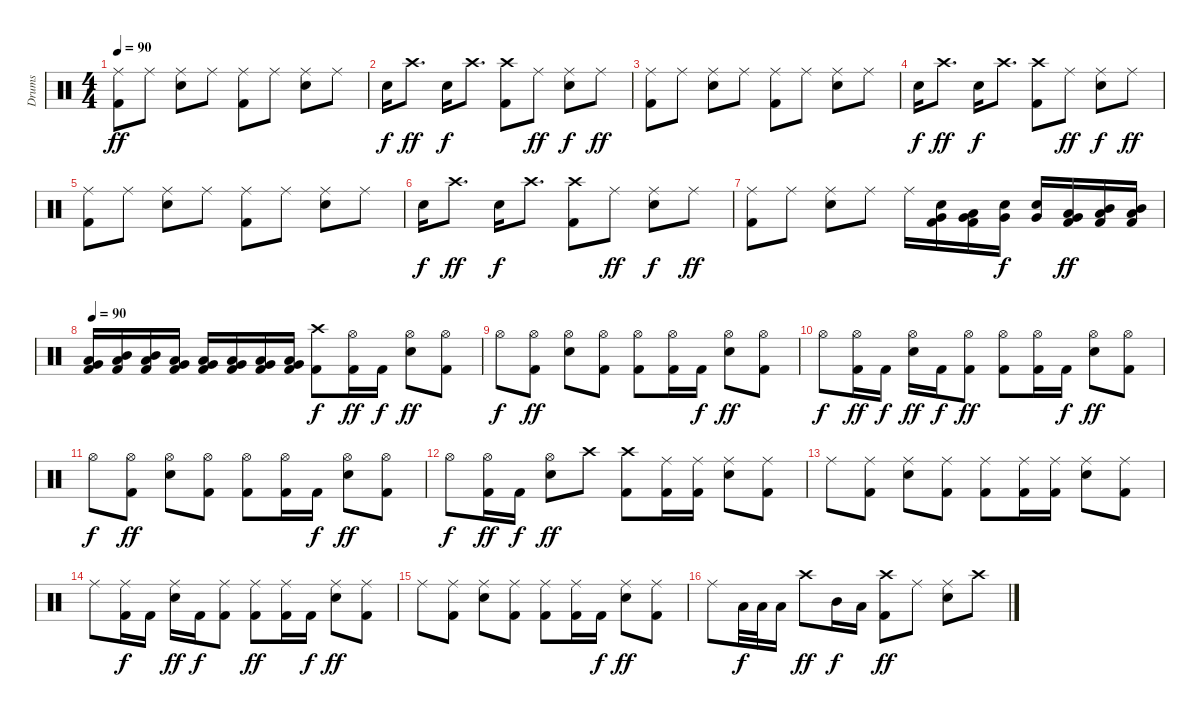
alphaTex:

\track ("Drums" "Drums") {instrument percussion}
\staff {score}
\articulation defaults
\ts (4 4)
\tempo 90
\clef neutral
\ks c
("Ride (middle)" "Kick (hit) 2").8{dy ff} "Ride (middle)".8 ("Ride (middle)" "Electric Snare (hit)").8 "Ride (middle)".8 ("Ride (middle)" "Kick (hit) 2").8 "Ride (middle)".8 ("Ride (middle)" "Electric Snare (hit)").8 "Ride (middle)".8 |
"Electric Snare (hit)".16{dy f} "Crash high (hit)".8{d dy ff} "Electric Snare (hit)".16{dy f} "Crash high (hit)".8{d} ("Crash high (hit)" "Kick (hit) 2").8 "Ride (middle)".8{dy ff} ("Ride (middle)" "Electric Snare (hit)").8{dy f} "Ride (middle)".8{dy ff} |
("Ride (middle)" "Kick (hit) 2").8 "Ride (middle)".8 ("Ride (middle)" "Electric Snare (hit)").8 "Ride (middle)".8 ("Ride (middle)" "Kick (hit) 2").8 "Ride (middle)".8 ("Ride (middle)" "Electric Snare (hit)").8 "Ride (middle)".8 |
"Electric Snare (hit)".16{dy f} "Crash high (hit)".8{d dy ff} "Electric Snare (hit)".16{dy f} "Crash high (hit)".8{d} ("Crash high (hit)" "Kick (hit) 2").8 "Ride (middle)".8{dy ff} ("Ride (middle)" "Electric Snare (hit)").8{dy f} "Ride (middle)".8{dy ff} |
("Ride (middle)" "Kick (hit) 2").8 "Ride (middle)".8 ("Ride (middle)" "Electric Snare (hit)").8 "Ride (middle)".8 ("Ride (middle)" "Kick (hit) 2").8 "Ride (middle)".8 ("Ride (middle)" "Electric Snare (hit)").8 "Ride (middle)".8 |
"Electric Snare (hit)".16{dy f} "Crash high (hit)".8{d dy ff} "Electric Snare (hit)".16{dy f} "Crash high (hit)".8{d} ("Crash high (hit)" "Kick (hit) 2").8 "Ride (middle)".8{dy ff} ("Ride (middle)" "Electric Snare (hit)").8{dy f} "Ride (middle)".8{dy ff} |
("Ride (middle)" "Kick (hit) 2").8 "Ride (middle)".8 ("Ride (middle)" "Electric Snare (hit)").8 "Ride (middle)".8 "Ride (middle)".16 ("Very Low Tom (hit)" "Electric Snare (hit)" "Kick (hit) 2").16 ("Low Tom (hit)" "Very Low Tom (hit)" "Kick (hit) 2").16 ("Very Low Tom (hit)" "Electric Snare (hit)").16{dy f} ("Very Low Tom (hit)" "Electric Snare (hit)").16 ("Low Tom (hit)" "Very Low Tom (hit)" "Kick (hit) 2").16{dy ff} ("Mid Tom (hit)" "Low Tom (hit)" "Kick (hit) 2").16 ("Mid Tom (hit)" "Low Tom (hit)" "Kick (hit) 2").16 |
\tempo 90
("Low Tom (hit)" "Very Low Tom (hit)" "Kick (hit) 2").16 ("Mid Tom (hit)" "Low Tom (hit)" "Kick (hit) 2").16 ("Mid Tom (hit)" "Low Tom (hit)" "Kick (hit) 2").16 ("Low Tom (hit)" "Very Low Tom (hit)" "Kick (hit) 2").16 ("Low Tom (hit)" "Very Low Tom (hit)" "Kick (hit) 2").16 ("Low Tom (hit)" "Very Low Tom (hit)" "Kick (hit) 2").16 ("Very Low Tom (hit)" "Low Floor Tom (hit)" "Kick (hit) 2").16 ("Very Low Tom (hit)" "Low Floor Tom (hit)" "Kick (hit) 2").16 ("Crash high (hit)" "Kick (hit) 2").8{dy f} ("Hi-Hat (open)" "Kick (hit) 2").16{dy ff} "Kick (hit) 2".16{dy f} ("Hi-Hat (open)" "Electric Snare (hit)").8{dy ff} ("Hi-Hat (open)" "Kick (hit) 2").8 |
"Hi-Hat (open)".8{dy f} ("Hi-Hat (open)" "Kick (hit) 2").8{dy ff} ("Hi-Hat (open)" "Electric Snare (hit)").8 ("Hi-Hat (open)" "Kick (hit) 2").8 ("Hi-Hat (open)" "Kick (hit) 2").8 ("Hi-Hat (open)" "Kick (hit) 2").16 "Kick (hit) 2".16{dy f} ("Hi-Hat (open)" "Electric Snare (hit)").8{dy ff} ("Hi-Hat (open)" "Kick (hit) 2").8 |
"Hi-Hat (open)".8{dy f} ("Hi-Hat (open)" "Kick (hit) 2").16{dy ff} "Kick (hit) 2".16{dy f} ("Hi-Hat (open)" "Electric Snare (hit)").16{dy ff} "Kick (hit) 2".16{dy f} ("Hi-Hat (open)" "Kick (hit) 2").8{dy ff} ("Hi-Hat (open)" "Kick (hit) 2").8 ("Hi-Hat (open)" "Kick (hit) 2").16 "Kick (hit) 2".16{dy f} ("Hi-Hat (open)" "Electric Snare (hit)").8{dy ff} ("Hi-Hat (open)" "Kick (hit) 2").8 |
"Hi-Hat (open)".8{dy f} ("Hi-Hat (open)" "Kick (hit) 2").8{dy ff} ("Hi-Hat (open)" "Electric Snare (hit)").8 ("Hi-Hat (open)" "Kick (hit) 2").8 ("Hi-Hat (open)" "Kick (hit) 2").8 ("Hi-Hat (open)" "Kick (hit) 2").16 "Kick (hit) 2".16{dy f} ("Hi-Hat (open)" "Electric Snare (hit)").8{dy ff} ("Hi-Hat (open)" "Kick (hit) 2").8 |
"Hi-Hat (open)".8{dy f} ("Hi-Hat (open)" "Kick (hit) 2").16{dy ff} "Kick (hit) 2".16{dy f} ("Hi-Hat (open)" "Electric Snare (hit)").8{dy ff} "Crash high (hit)".8 ("Crash high (hit)" "Kick (hit) 2").8 ("Ride (middle)" "Kick (hit) 2").16 ("Ride (middle)" "Kick (hit) 2").16 ("Ride (middle)" "Electric Snare (hit)").8 ("Ride (middle)" "Kick (hit) 2").8 |
"Ride (middle)".8 ("Ride (middle)" "Kick (hit) 2").8 ("Ride (middle)" "Electric Snare (hit)").8 ("Ride (middle)" "Kick (hit) 2").8 ("Ride (middle)" "Kick (hit) 2").8 ("Ride (middle)" "Kick (hit) 2").16 ("Ride (middle)" "Kick (hit) 2").16 ("Ride (middle)" "Electric Snare (hit)").8 ("Ride (middle)" "Kick (hit) 2").8 |
"Ride (middle)".8 ("Ride (middle)" "Kick (hit) 2").16{dy f} "Kick (hit) 2".16 ("Ride (middle)" "Electric Snare (hit)").16{dy ff} "Kick (hit) 2".16{dy f} ("Ride (middle)" "Kick (hit) 2").8 ("Ride (middle)" "Kick (hit) 2").8{dy ff} ("Ride (middle)" "Kick (hit) 2").16 "Kick (hit) 2".16{dy f} ("Ride (middle)" "Electric Snare (hit)").8{dy ff} ("Ride (middle)" "Kick (hit) 2").8 |
"Ride (middle)".8 ("Ride (middle)" "Kick (hit) 2").8 ("Ride (middle)" "Electric Snare (hit)").8 ("Ride (middle)" "Kick (hit) 2").8 ("Ride (middle)" "Kick (hit) 2").8 ("Ride (middle)" "Kick (hit) 2").16 "Kick (hit) 2".16{dy f} ("Ride (middle)" "Electric Snare (hit)").8{dy ff} ("Ride (middle)" "Kick (hit) 2").8 |
"Ride (middle)".8 "Low Tom (hit)".32{dy f} "Low Tom (hit)".32 "Low Tom (hit)".16 "Crash high (hit)".8{dy ff} "Mid Tom (hit)".16{dy f} "Low Tom (hit)".16 ("Crash high (hit)" "Kick (hit) 2").8{dy ff} "Ride (middle)".8 ("Ride (middle)" "Electric Snare (hit)").8 "Crash high (hit)".8
